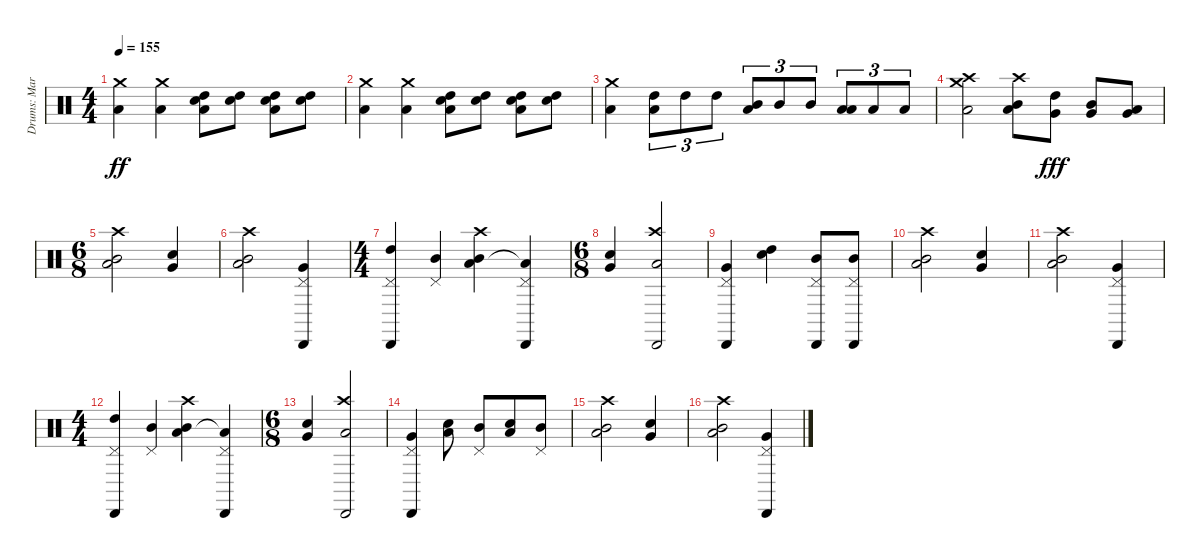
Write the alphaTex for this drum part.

\track ("Drums: Mark Cross" "Drums: Mar") {instrument percussion}
\staff {score}
\articulation defaults
\ts (4 4)
\tempo 155
\clef neutral
\ks c
("Crash medium (hit)" "Low Tom (hit)").4{dy ff} ("Crash medium (hit)" "Low Tom (hit)").4 ("Snare (hit) 2" "High Tom (hit)" "Low Tom (hit)").8 ("Snare (hit) 2" "High Tom (hit)").8 ("Snare (hit) 2" "High Tom (hit)" "Low Tom (hit)").8 ("Snare (hit) 2" "High Tom (hit)").8 |
("Crash medium (hit)" "Low Tom (hit)").4 ("Crash medium (hit)" "Low Tom (hit)").4 ("Snare (hit) 2" "High Tom (hit)" "Low Tom (hit)").8 ("Snare (hit) 2" "High Tom (hit)").8 ("Snare (hit) 2" "High Tom (hit)" "Low Tom (hit)").8 ("Snare (hit) 2" "High Tom (hit)").8 |
("Crash medium (hit)" "Low Tom (hit)").4 ("Low Tom (hit)" "High Tom (hit)").8{tu (3 2)} "High Tom (hit)".8{tu (3 2)} "High Tom (hit)".8{tu (3 2)} ("Low Tom (hit)" "Mid Tom (hit)").8{tu (3 2)} "Mid Tom (hit)".8{tu (3 2)} "Mid Tom (hit)".8{tu (3 2)} ("Low Tom (hit)" "Low Tom (hit)").8{tu (3 2)} "Low Tom (hit)".8{tu (3 2)} "Low Tom (hit)".8{tu (3 2)} |
("Crash medium (hit)" "Crash high (hit)" "Low Tom (hit)").2 ("Mid Tom (hit)" "Crash high (hit)" "Low Tom (hit)").8 ("High Tom (hit)" "Very Low Tom (hit)").8{dy fff} ("Mid Tom (hit)" "Very Low Tom (hit)").8 ("Low Tom (hit)" "Very Low Tom (hit)").8 |
\ts (6 8)
("Mid Tom (hit)" "Crash high (hit)" "Low Tom (hit)").2 ("Snare (hit) 2" "Very Low Tom (hit)").4 |
("Mid Tom (hit)" "Crash high (hit)" "Low Tom (hit)").2 ("Cabasa (hit)" "Pedal Hi-Hat (hit)" "Very Low Tom (hit)").4 |
\ts (4 4)
("Cabasa (hit)" "Pedal Hi-Hat (hit)" "High Tom (hit)").4 ("Pedal Hi-Hat (hit)" "Mid Tom (hit)").4 ("Mid Tom (hit)" "Crash high (hit)" "Low Tom (hit)").4 ("Cabasa (hit)" "Pedal Hi-Hat (hit)" "Low Tom (hit)"{t}).4 |
\ts (6 8)
("Snare (hit) 2" "Very Low Tom (hit)").4 ("Crash high (hit)" "Cabasa (hit)" "Low Tom (hit)").2 |
("Cabasa (hit)" "Pedal Hi-Hat (hit)" "Very Low Tom (hit)").4 ("Snare (hit) 2" "High Tom (hit)").4 ("Pedal Hi-Hat (hit)" "Cabasa (hit)" "Mid Tom (hit)").8 ("Pedal Hi-Hat (hit)" "Cabasa (hit)" "Mid Tom (hit)").8 |
("Mid Tom (hit)" "Crash high (hit)" "Low Tom (hit)").2 ("Snare (hit) 2" "Very Low Tom (hit)").4 |
("Mid Tom (hit)" "Crash high (hit)" "Low Tom (hit)").2 ("Cabasa (hit)" "Pedal Hi-Hat (hit)" "Very Low Tom (hit)").4 |
\ts (4 4)
("Cabasa (hit)" "Pedal Hi-Hat (hit)" "High Tom (hit)").4 ("Pedal Hi-Hat (hit)" "Mid Tom (hit)").4 ("Mid Tom (hit)" "Crash high (hit)" "Low Tom (hit)").4 ("Cabasa (hit)" "Pedal Hi-Hat (hit)" "Low Tom (hit)"{t}).4 |
\ts (6 8)
("Snare (hit) 2" "Very Low Tom (hit)").4 ("Crash high (hit)" "Cabasa (hit)" "Low Tom (hit)").2 |
("Cabasa (hit)" "Pedal Hi-Hat (hit)" "Very Low Tom (hit)").4 ("Snare (hit) 2" "Low Tom (hit)").8 ("Pedal Hi-Hat (hit)" "Mid Tom (hit)").8 ("Snare (hit) 2" "Low Tom (hit)").8 ("Pedal Hi-Hat (hit)" "Mid Tom (hit)").8 |
("Mid Tom (hit)" "Crash high (hit)" "Low Tom (hit)").2 ("Snare (hit) 2" "Very Low Tom (hit)").4 |
("Mid Tom (hit)" "Crash high (hit)" "Low Tom (hit)").2 ("Cabasa (hit)" "Pedal Hi-Hat (hit)" "Very Low Tom (hit)").4
